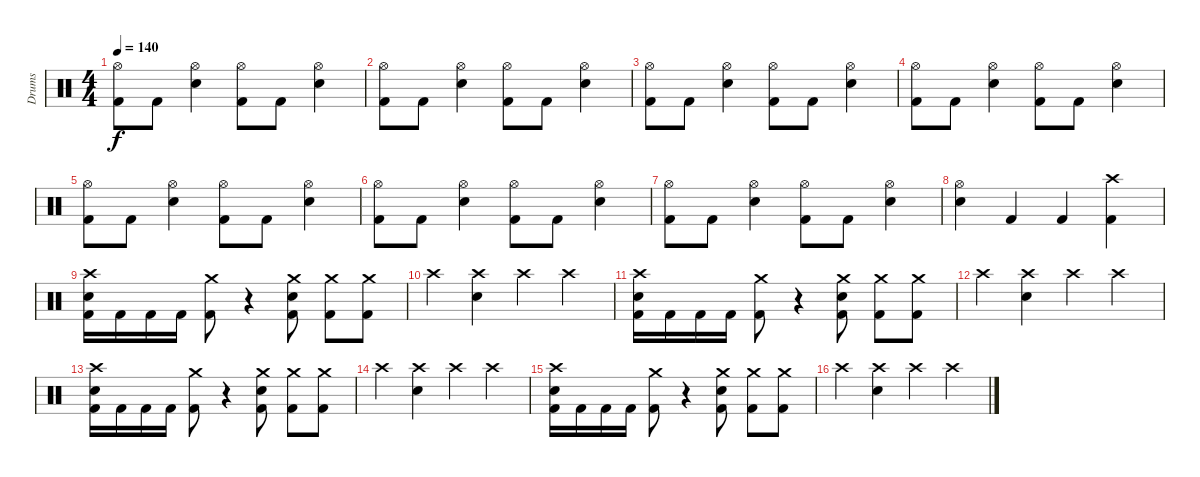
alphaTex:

\track ("Drums" "Drums") {instrument percussion}
\staff {score}
\articulation defaults
\ts (4 4)
\tempo 140
\clef neutral
\ks c
("Hi-Hat (open)" "Kick (hit) 2").8{dy f} "Kick (hit) 2".8 ("Hi-Hat (open)" "Electric Snare (hit)").4 ("Hi-Hat (open)" "Kick (hit) 2").8 "Kick (hit) 2".8 ("Hi-Hat (open)" "Electric Snare (hit)").4 |
("Hi-Hat (open)" "Kick (hit) 2").8 "Kick (hit) 2".8 ("Hi-Hat (open)" "Electric Snare (hit)").4 ("Hi-Hat (open)" "Kick (hit) 2").8 "Kick (hit) 2".8 ("Hi-Hat (open)" "Electric Snare (hit)").4 |
("Hi-Hat (open)" "Kick (hit) 2").8 "Kick (hit) 2".8 ("Hi-Hat (open)" "Electric Snare (hit)").4 ("Hi-Hat (open)" "Kick (hit) 2").8 "Kick (hit) 2".8 ("Hi-Hat (open)" "Electric Snare (hit)").4 |
("Hi-Hat (open)" "Kick (hit) 2").8 "Kick (hit) 2".8 ("Hi-Hat (open)" "Electric Snare (hit)").4 ("Hi-Hat (open)" "Kick (hit) 2").8 "Kick (hit) 2".8 ("Hi-Hat (open)" "Electric Snare (hit)").4 |
("Hi-Hat (open)" "Kick (hit) 2").8 "Kick (hit) 2".8 ("Hi-Hat (open)" "Electric Snare (hit)").4 ("Hi-Hat (open)" "Kick (hit) 2").8 "Kick (hit) 2".8 ("Hi-Hat (open)" "Electric Snare (hit)").4 |
("Hi-Hat (open)" "Kick (hit) 2").8 "Kick (hit) 2".8 ("Hi-Hat (open)" "Electric Snare (hit)").4 ("Hi-Hat (open)" "Kick (hit) 2").8 "Kick (hit) 2".8 ("Hi-Hat (open)" "Electric Snare (hit)").4 |
("Hi-Hat (open)" "Kick (hit) 2").8 "Kick (hit) 2".8 ("Hi-Hat (open)" "Electric Snare (hit)").4 ("Hi-Hat (open)" "Kick (hit) 2").8 "Kick (hit) 2".8 ("Hi-Hat (open)" "Electric Snare (hit)").4 |
("Hi-Hat (open)" "Electric Snare (hit)").4 "Kick (hit) 2".4 "Kick (hit) 2".4 ("Crash high (hit)" "Kick (hit) 2").4 |
("Crash high (hit)" "Electric Snare (hit)" "Kick (hit) 2").16 "Kick (hit) 2".16 "Kick (hit) 2".16 "Kick (hit) 2".16 ("Crash medium (hit)" "Kick (hit) 2").8 r.4 ("Crash medium (hit)" "Electric Snare (hit)" "Kick (hit) 2").8 ("Crash medium (hit)" "Kick (hit) 2").8 ("Crash medium (hit)" "Kick (hit) 2").8 |
"Crash high (hit)".4 ("Crash high (hit)" "Electric Snare (hit)").4 "Crash high (hit)".4 "Crash high (hit)".4 |
("Crash high (hit)" "Electric Snare (hit)" "Kick (hit) 2").16 "Kick (hit) 2".16 "Kick (hit) 2".16 "Kick (hit) 2".16 ("Crash medium (hit)" "Kick (hit) 2").8 r.4 ("Crash medium (hit)" "Electric Snare (hit)" "Kick (hit) 2").8 ("Crash medium (hit)" "Kick (hit) 2").8 ("Crash medium (hit)" "Kick (hit) 2").8 |
"Crash high (hit)".4 ("Crash high (hit)" "Electric Snare (hit)").4 "Crash high (hit)".4 "Crash high (hit)".4 |
("Crash high (hit)" "Electric Snare (hit)" "Kick (hit) 2").16 "Kick (hit) 2".16 "Kick (hit) 2".16 "Kick (hit) 2".16 ("Crash medium (hit)" "Kick (hit) 2").8 r.4 ("Crash medium (hit)" "Electric Snare (hit)" "Kick (hit) 2").8 ("Crash medium (hit)" "Kick (hit) 2").8 ("Crash medium (hit)" "Kick (hit) 2").8 |
"Crash high (hit)".4 ("Crash high (hit)" "Electric Snare (hit)").4 "Crash high (hit)".4 "Crash high (hit)".4 |
("Crash high (hit)" "Electric Snare (hit)" "Kick (hit) 2").16 "Kick (hit) 2".16 "Kick (hit) 2".16 "Kick (hit) 2".16 ("Crash medium (hit)" "Kick (hit) 2").8 r.4 ("Crash medium (hit)" "Electric Snare (hit)" "Kick (hit) 2").8 ("Crash medium (hit)" "Kick (hit) 2").8 ("Crash medium (hit)" "Kick (hit) 2").8 |
"Crash high (hit)".4 ("Crash high (hit)" "Electric Snare (hit)").4 "Crash high (hit)".4 "Crash high (hit)".4
